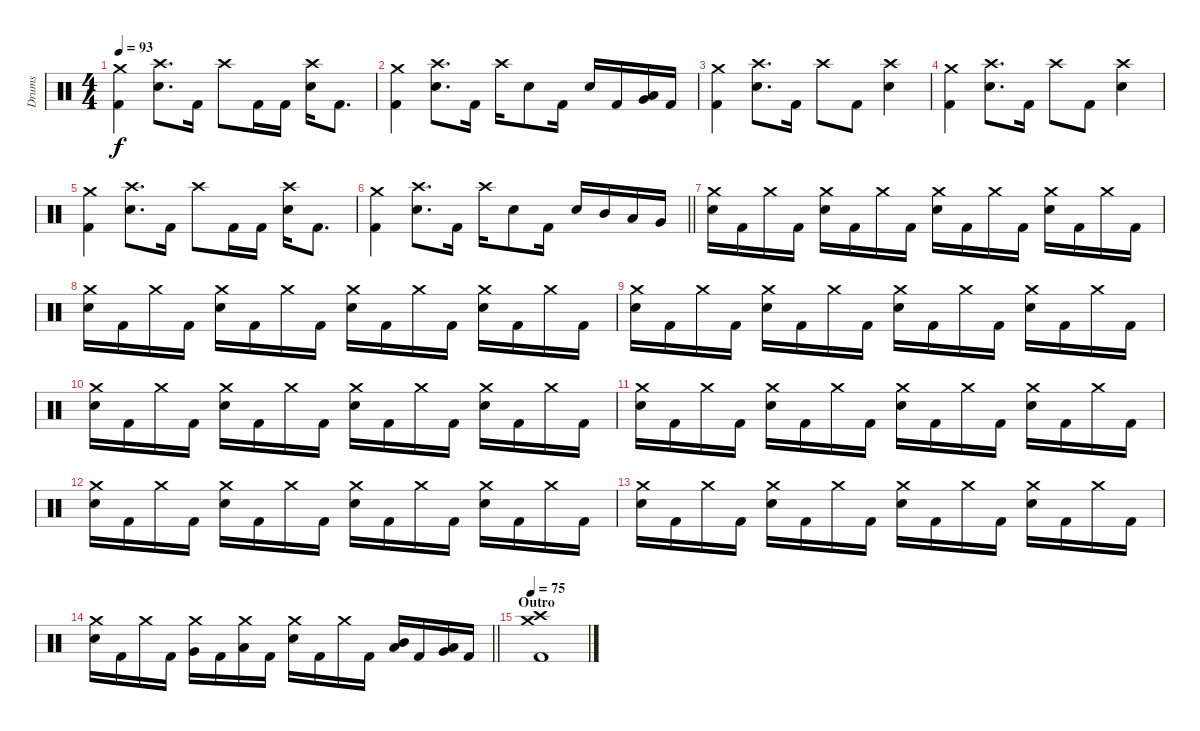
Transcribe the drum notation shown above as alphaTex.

\track ("Drums" "Drums") {instrument percussion}
\staff {score}
\articulation defaults
\ts (4 4)
\tempo 93
\clef neutral
\ks c
("Crash medium (hit)" "Kick (hit) 2").4{dy f} ("Crash high (hit)" "Electric Snare (hit)").8{d} "Kick (hit) 2".16 "Crash high (hit)".8 "Kick (hit) 2".16 "Kick (hit) 2".16 ("Crash high (hit)" "Electric Snare (hit)").16 "Kick (hit) 2".8{d} |
("Crash medium (hit)" "Kick (hit) 2").4 ("Crash high (hit)" "Electric Snare (hit)").8{d} "Kick (hit) 2".16 "Crash high (hit)".16 "Electric Snare (hit)".8 "Kick (hit) 2".16 "Electric Snare (hit)".16 "Kick (hit) 2".16 ("Very Low Tom (hit)" "Low Floor Tom (hit)").16 "Kick (hit) 2".16 |
("Crash medium (hit)" "Kick (hit) 2").4 ("Crash high (hit)" "Electric Snare (hit)").8{d} "Kick (hit) 2".16 "Crash high (hit)".8 "Kick (hit) 2".8 ("Crash high (hit)" "Electric Snare (hit)").4 |
("Crash medium (hit)" "Kick (hit) 2").4 ("Crash high (hit)" "Electric Snare (hit)").8{d} "Kick (hit) 2".16 "Crash high (hit)".8 "Kick (hit) 2".8 ("Crash high (hit)" "Electric Snare (hit)").4 |
("Crash medium (hit)" "Kick (hit) 2").4 ("Crash high (hit)" "Electric Snare (hit)").8{d} "Kick (hit) 2".16 "Crash high (hit)".8 "Kick (hit) 2".16 "Kick (hit) 2".16 ("Crash high (hit)" "Electric Snare (hit)").16 "Kick (hit) 2".8{d} |
\barLineRight lightlight
("Crash medium (hit)" "Kick (hit) 2").4 ("Crash high (hit)" "Electric Snare (hit)").8{d} "Kick (hit) 2".16 "Crash high (hit)".16 "Electric Snare (hit)".8 "Kick (hit) 2".16 "Electric Snare (hit)".16 "Mid Tom (hit)".16 "Low Tom (hit)".16 "Very Low Tom (hit)".16 |
("Crash medium (hit)" "Electric Snare (hit)").16 "Kick (hit) 2".16 "Crash medium (hit)".16 "Kick (hit) 2".16 ("Crash medium (hit)" "Electric Snare (hit)").16 "Kick (hit) 2".16 "Crash medium (hit)".16 "Kick (hit) 2".16 ("Crash medium (hit)" "Electric Snare (hit)").16 "Kick (hit) 2".16 "Crash medium (hit)".16 "Kick (hit) 2".16 ("Crash medium (hit)" "Electric Snare (hit)").16 "Kick (hit) 2".16 "Crash medium (hit)".16 "Kick (hit) 2".16 |
("Crash medium (hit)" "Electric Snare (hit)").16 "Kick (hit) 2".16 "Crash medium (hit)".16 "Kick (hit) 2".16 ("Crash medium (hit)" "Electric Snare (hit)").16 "Kick (hit) 2".16 "Crash medium (hit)".16 "Kick (hit) 2".16 ("Crash medium (hit)" "Electric Snare (hit)").16 "Kick (hit) 2".16 "Crash medium (hit)".16 "Kick (hit) 2".16 ("Crash medium (hit)" "Electric Snare (hit)").16 "Kick (hit) 2".16 "Crash medium (hit)".16 "Kick (hit) 2".16 |
("Crash medium (hit)" "Electric Snare (hit)").16 "Kick (hit) 2".16 "Crash medium (hit)".16 "Kick (hit) 2".16 ("Crash medium (hit)" "Electric Snare (hit)").16 "Kick (hit) 2".16 "Crash medium (hit)".16 "Kick (hit) 2".16 ("Crash medium (hit)" "Electric Snare (hit)").16 "Kick (hit) 2".16 "Crash medium (hit)".16 "Kick (hit) 2".16 ("Crash medium (hit)" "Electric Snare (hit)").16 "Kick (hit) 2".16 "Crash medium (hit)".16 "Kick (hit) 2".16 |
("Crash medium (hit)" "Electric Snare (hit)").16 "Kick (hit) 2".16 "Crash medium (hit)".16 "Kick (hit) 2".16 ("Crash medium (hit)" "Electric Snare (hit)").16 "Kick (hit) 2".16 "Crash medium (hit)".16 "Kick (hit) 2".16 ("Crash medium (hit)" "Electric Snare (hit)").16 "Kick (hit) 2".16 "Crash medium (hit)".16 "Kick (hit) 2".16 ("Crash medium (hit)" "Electric Snare (hit)").16 "Kick (hit) 2".16 "Crash medium (hit)".16 "Kick (hit) 2".16 |
("Crash medium (hit)" "Electric Snare (hit)").16 "Kick (hit) 2".16 "Crash medium (hit)".16 "Kick (hit) 2".16 ("Crash medium (hit)" "Electric Snare (hit)").16 "Kick (hit) 2".16 "Crash medium (hit)".16 "Kick (hit) 2".16 ("Crash medium (hit)" "Electric Snare (hit)").16 "Kick (hit) 2".16 "Crash medium (hit)".16 "Kick (hit) 2".16 ("Crash medium (hit)" "Electric Snare (hit)").16 "Kick (hit) 2".16 "Crash medium (hit)".16 "Kick (hit) 2".16 |
("Crash medium (hit)" "Electric Snare (hit)").16 "Kick (hit) 2".16 "Crash medium (hit)".16 "Kick (hit) 2".16 ("Crash medium (hit)" "Electric Snare (hit)").16 "Kick (hit) 2".16 "Crash medium (hit)".16 "Kick (hit) 2".16 ("Crash medium (hit)" "Electric Snare (hit)").16 "Kick (hit) 2".16 "Crash medium (hit)".16 "Kick (hit) 2".16 ("Crash medium (hit)" "Electric Snare (hit)").16 "Kick (hit) 2".16 "Crash medium (hit)".16 "Kick (hit) 2".16 |
("Crash medium (hit)" "Electric Snare (hit)").16 "Kick (hit) 2".16 "Crash medium (hit)".16 "Kick (hit) 2".16 ("Crash medium (hit)" "Electric Snare (hit)").16 "Kick (hit) 2".16 "Crash medium (hit)".16 "Kick (hit) 2".16 ("Crash medium (hit)" "Electric Snare (hit)").16 "Kick (hit) 2".16 "Crash medium (hit)".16 "Kick (hit) 2".16 ("Crash medium (hit)" "Electric Snare (hit)").16 "Kick (hit) 2".16 "Crash medium (hit)".16 "Kick (hit) 2".16 |
\barLineRight lightlight
("Crash medium (hit)" "Electric Snare (hit)").16 "Kick (hit) 2".16 "Crash medium (hit)".16 "Kick (hit) 2".16 ("Crash medium (hit)" "Very Low Tom (hit)").16 "Kick (hit) 2".16 ("Crash medium (hit)" "Low Floor Tom (hit)").16 "Kick (hit) 2".16 ("Crash medium (hit)" "Electric Snare (hit)").16 "Kick (hit) 2".16 "Crash medium (hit)".16 "Kick (hit) 2".16 ("Mid Tom (hit)" "Low Tom (hit)").16 "Kick (hit) 2".16 ("Very Low Tom (hit)" "Low Floor Tom (hit)").16 "Kick (hit) 2".16 |
\section ("" "Outro")
\tempo 75
("Crash medium (hit)" "Crash high (hit)" "Kick (hit) 2").1
